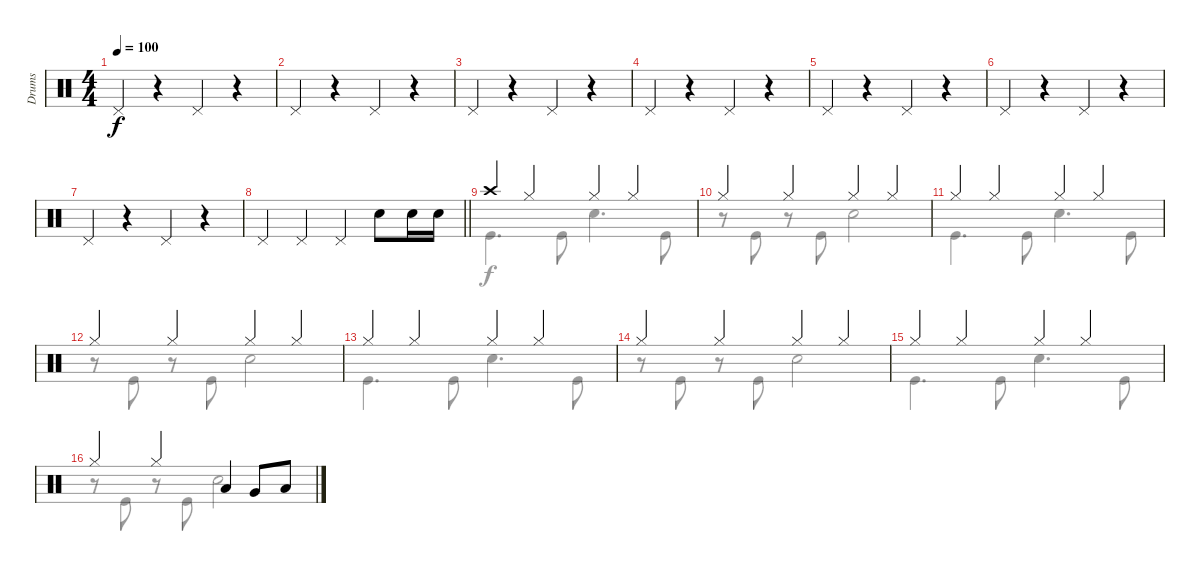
\track ("Drums" "Drums") {instrument percussion}
\staff {score}
\articulation defaults
\voice
\ts (4 4)
\tempo 100
\clef neutral
\ks c "Pedal Hi-Hat (hit)".4{dy f}
r.4 "Pedal Hi-Hat (hit)".4 r.4 |
"Pedal Hi-Hat (hit)".4 r.4 "Pedal Hi-Hat (hit)".4 r.4 |
"Pedal Hi-Hat (hit)".4 r.4 "Pedal Hi-Hat (hit)".4 r.4 |
"Pedal Hi-Hat (hit)".4 r.4 "Pedal Hi-Hat (hit)".4 r.4 |
"Pedal Hi-Hat (hit)".4 r.4 "Pedal Hi-Hat (hit)".4 r.4 |
"Pedal Hi-Hat (hit)".4 r.4 "Pedal Hi-Hat (hit)".4 r.4 |
"Pedal Hi-Hat (hit)".4 r.4 "Pedal Hi-Hat (hit)".4 r.4 |
\barLineRight lightlight "Pedal Hi-Hat (hit)".4 "Pedal Hi-Hat (hit)".4 "Pedal Hi-Hat (hit)".4 "Snare (hit) 2".8 "Snare (hit) 2".16 "Snare (hit) 2".16
|
"Crash high (hit)".4 "Hi-Hat (closed)".4 "Hi-Hat (closed)".4 "Hi-Hat (closed)".4 |
"Hi-Hat (closed)".4 "Hi-Hat (closed)".4 "Hi-Hat (closed)".4 "Hi-Hat (closed)".4 |
"Hi-Hat (closed)".4 "Hi-Hat (closed)".4 "Hi-Hat (closed)".4 "Hi-Hat (closed)".4 |
"Hi-Hat (closed)".4 "Hi-Hat (closed)".4 "Hi-Hat (closed)".4 "Hi-Hat (closed)".4 |
"Hi-Hat (closed)".4 "Hi-Hat (closed)".4 "Hi-Hat (closed)".4 "Hi-Hat (closed)".4 |
"Hi-Hat (closed)".4 "Hi-Hat (closed)".4 "Hi-Hat (closed)".4 "Hi-Hat (closed)".4 |
"Hi-Hat (closed)".4 "Hi-Hat (closed)".4 "Hi-Hat (closed)".4 "Hi-Hat (closed)".4 |
"Hi-Hat (closed)".4 "Hi-Hat (closed)".4 "Low Tom (hit)".4 "Very Low Tom (hit)".8 "Low Floor Tom (hit)".8
\voice
\clef neutral
\ottava regular
\simile none
\ks c
|
|
|
|
|
|
|
\barLineRight lightlight
|
"Kick (hit)".4{d} "Kick (hit)".8 "Snare (hit) 2".4{d} "Kick (hit)".8 |
r.8 "Kick (hit)".8 r.8 "Kick (hit)".8 "Snare (hit) 2".2 |
"Kick (hit)".4{d} "Kick (hit)".8 "Snare (hit) 2".4{d} "Kick (hit)".8 |
r.8 "Kick (hit)".8 r.8 "Kick (hit)".8 "Snare (hit) 2".2 |
"Kick (hit)".4{d} "Kick (hit)".8 "Snare (hit) 2".4{d} "Kick (hit)".8 |
r.8 "Kick (hit)".8 r.8 "Kick (hit)".8 "Snare (hit) 2".2 |
"Kick (hit)".4{d} "Kick (hit)".8 "Snare (hit) 2".4{d} "Kick (hit)".8 |
r.8 "Kick (hit)".8 r.8 "Kick (hit)".8 "Snare (hit) 2".2
